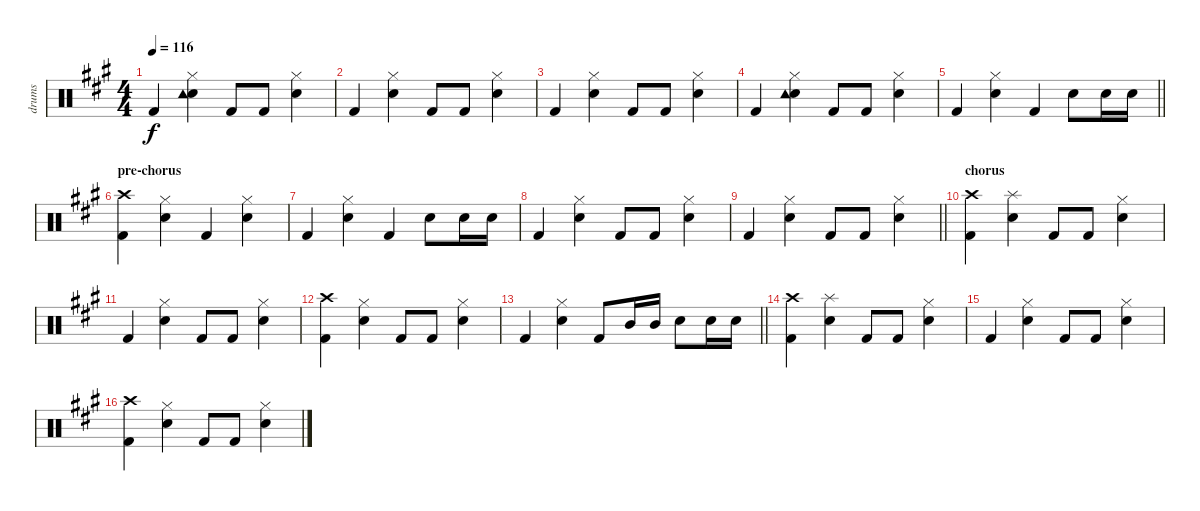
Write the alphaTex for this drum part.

\track ("drums" "drums") {instrument percussion}
\staff {score}
\articulation defaults
\ts (4 4)
\tempo 116
\clef neutral
\ks a "Kick (hit) 2".4{dy f}
("Hi-Hat (closed)" "Electric Snare (hit)" "Tambourine (hit)").4 "Kick (hit) 2".8 "Kick (hit) 2".8 ("Hi-Hat (closed)" "Electric Snare (hit)").4 |
"Kick (hit) 2".4 ("Hi-Hat (closed)" "Electric Snare (hit)").4 "Kick (hit) 2".8 "Kick (hit) 2".8 ("Hi-Hat (closed)" "Electric Snare (hit)").4 |
"Kick (hit) 2".4 ("Hi-Hat (closed)" "Electric Snare (hit)").4 "Kick (hit) 2".8 "Kick (hit) 2".8 ("Hi-Hat (closed)" "Electric Snare (hit)").4 |
"Kick (hit) 2".4 ("Hi-Hat (closed)" "Electric Snare (hit)" "Tambourine (hit)").4 "Kick (hit) 2".8 "Kick (hit) 2".8 ("Hi-Hat (closed)" "Electric Snare (hit)").4 |
\barLineRight lightlight "Kick (hit) 2".4
("Hi-Hat (closed)" "Electric Snare (hit)").4 "Kick (hit) 2".4 "Electric Snare (hit)".8 "Electric Snare (hit)".16 "Electric Snare (hit)".16 |
\section ("" "pre-chorus")
("Crash high (hit)" "Kick (hit) 2").4 ("Hi-Hat (closed)" "Electric Snare (hit)").4 "Kick (hit) 2".4 ("Hi-Hat (closed)" "Electric Snare (hit)").4 |
"Kick (hit) 2".4 ("Hi-Hat (closed)" "Electric Snare (hit)").4 "Kick (hit) 2".4 "Electric Snare (hit)".8 "Electric Snare (hit)".16 "Electric Snare (hit)".16 |
"Kick (hit) 2".4 ("Hi-Hat (closed)" "Electric Snare (hit)").4 "Kick (hit) 2".8 "Kick (hit) 2".8 ("Hi-Hat (closed)" "Electric Snare (hit)").4 |
\barLineRight lightlight "Kick (hit) 2".4
("Hi-Hat (closed)" "Electric Snare (hit)").4 "Kick (hit) 2".8 "Kick (hit) 2".8 ("Hi-Hat (closed)" "Electric Snare (hit)").4 |
\section ("" "chorus")
("Crash high (hit)" "Kick (hit) 2").4 ("Splash (hit)" "Electric Snare (hit)").4 "Kick (hit) 2".8 "Kick (hit) 2".8 ("Hi-Hat (closed)" "Electric Snare (hit)").4 |
"Kick (hit) 2".4 ("Hi-Hat (closed)" "Electric Snare (hit)").4 "Kick (hit) 2".8 "Kick (hit) 2".8 ("Hi-Hat (closed)" "Electric Snare (hit)").4 |
("Crash high (hit)" "Kick (hit) 2").4 ("Hi-Hat (closed)" "Electric Snare (hit)").4 "Kick (hit) 2".8 "Kick (hit) 2".8 ("Hi-Hat (closed)" "Electric Snare (hit)").4 |
\barLineRight lightlight "Kick (hit) 2".4
("Hi-Hat (closed)" "Electric Snare (hit)").4 "Kick (hit) 2".8 "Mid Tom (hit)".16 "Mid Tom (hit)".16 "Electric Snare (hit)".8 "Electric Snare (hit)".16 "Electric Snare (hit)".16 |
("Crash high (hit)" "Kick (hit) 2").4 ("Splash (hit)" "Electric Snare (hit)").4 "Kick (hit) 2".8 "Kick (hit) 2".8 ("Hi-Hat (closed)" "Electric Snare (hit)").4 |
"Kick (hit) 2".4 ("Hi-Hat (closed)" "Electric Snare (hit)").4 "Kick (hit) 2".8 "Kick (hit) 2".8 ("Hi-Hat (closed)" "Electric Snare (hit)").4 |
("Crash high (hit)" "Kick (hit) 2").4 ("Hi-Hat (closed)" "Electric Snare (hit)").4 "Kick (hit) 2".8 "Kick (hit) 2".8 ("Hi-Hat (closed)" "Electric Snare (hit)").4
